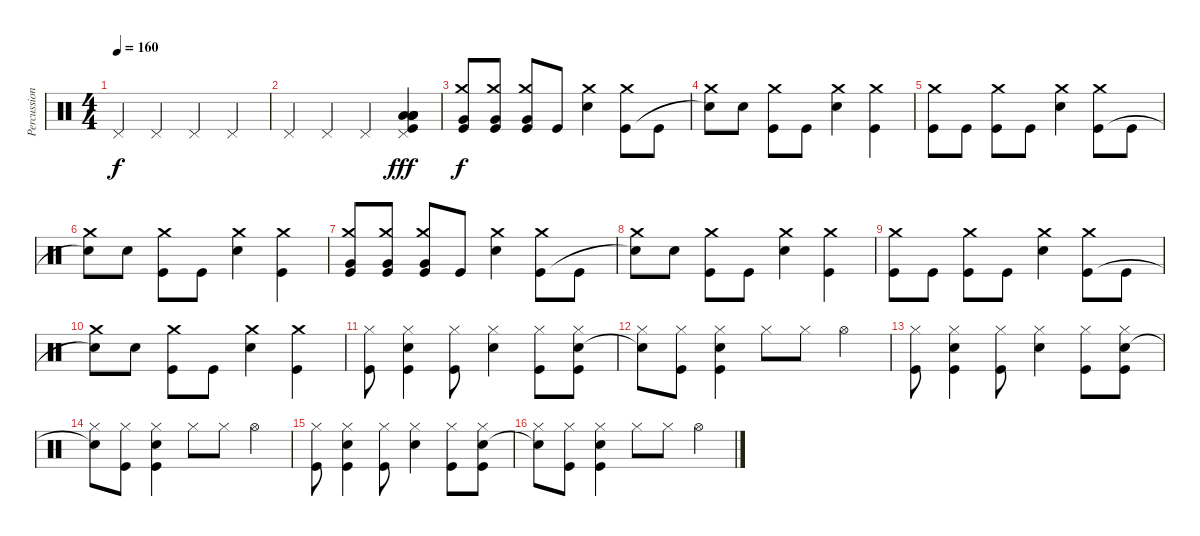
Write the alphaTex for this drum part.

\track ("Percussion" "Percussion") {instrument percussion}
\staff {score}
\articulation defaults
\ts (4 4)
\tempo 160
\clef neutral
\ks c "Pedal Hi-Hat (hit)".4{dy f} "Pedal Hi-Hat (hit)".4 "Pedal Hi-Hat (hit)".4 "Pedal Hi-Hat (hit)".4
|
"Pedal Hi-Hat (hit)".4 "Pedal Hi-Hat (hit)".4 "Pedal Hi-Hat (hit)".4 ("Pedal Hi-Hat (hit)" "Low Floor Tom (hit)" "Low Floor Tom (hit)" "Low Floor Tom (hit)" "Low Floor Tom (hit)" "Kick (hit)").4{dy fff} |
("Crash medium (hit)" "Very Low Tom (hit)" "Kick (hit)").8{dy f} ("Crash medium (hit)" "Very Low Tom (hit)" "Kick (hit)").8 ("Crash medium (hit)" "Very Low Tom (hit)" "Kick (hit)").8 "Kick (hit)".8 ("Crash medium (hit)" "Electric Snare (hit)").4 ("Crash medium (hit)" "Kick (hit)").8 "Kick (hit)".8 |
("Crash medium (hit)" "Snare (hit)"{t}).8 "Electric Snare (hit)".8 ("Crash medium (hit)" "Kick (hit)").8 "Kick (hit)".8 ("Crash medium (hit)" "Electric Snare (hit)").4 ("Crash medium (hit)" "Kick (hit)").4 |
("Crash medium (hit)" "Kick (hit)").8 "Kick (hit)".8 ("Crash medium (hit)" "Kick (hit)").8 "Kick (hit)".8 ("Crash medium (hit)" "Electric Snare (hit)").4 ("Crash medium (hit)" "Kick (hit)").8 "Kick (hit)".8 |
("Crash medium (hit)" "Snare (hit)"{t}).8 "Electric Snare (hit)".8 ("Crash medium (hit)" "Kick (hit)").8 "Kick (hit)".8 ("Crash medium (hit)" "Electric Snare (hit)").4 ("Crash medium (hit)" "Kick (hit)").4 |
("Crash medium (hit)" "Very Low Tom (hit)" "Kick (hit)").8 ("Crash medium (hit)" "Very Low Tom (hit)" "Kick (hit)").8 ("Crash medium (hit)" "Very Low Tom (hit)" "Kick (hit)").8 "Kick (hit)".8 ("Crash medium (hit)" "Electric Snare (hit)").4 ("Crash medium (hit)" "Kick (hit)").8 "Kick (hit)".8 |
("Crash medium (hit)" "Snare (hit)"{t}).8 "Electric Snare (hit)".8 ("Crash medium (hit)" "Kick (hit)").8 "Kick (hit)".8 ("Crash medium (hit)" "Electric Snare (hit)").4 ("Crash medium (hit)" "Kick (hit)").4 |
("Crash medium (hit)" "Kick (hit)").8 "Kick (hit)".8 ("Crash medium (hit)" "Kick (hit)").8 "Kick (hit)".8 ("Crash medium (hit)" "Electric Snare (hit)").4 ("Crash medium (hit)" "Kick (hit)").8 "Kick (hit)".8 |
("Crash medium (hit)" "Snare (hit)"{t}).8 "Electric Snare (hit)".8 ("Crash medium (hit)" "Kick (hit)").8 "Kick (hit)".8 ("Crash medium (hit)" "Electric Snare (hit)").4 ("Crash medium (hit)" "Kick (hit)").4 |
("Hi-Hat (closed)" "Kick (hit)").8 ("Hi-Hat (closed)" "Electric Snare (hit)" "Kick (hit)").4 ("Hi-Hat (closed)" "Kick (hit)").8 ("Hi-Hat (closed)" "Electric Snare (hit)").4 ("Hi-Hat (closed)" "Kick (hit)").8 ("Hi-Hat (closed)" "Electric Snare (hit)" "Kick (hit)").8 |
("Hi-Hat (closed)" "Snare (hit)"{t}).8 ("Hi-Hat (closed)" "Kick (hit)").8 ("Hi-Hat (closed)" "Electric Snare (hit)" "Kick (hit)").4 "Hi-Hat (closed)".8 "Hi-Hat (closed)".8 "Hi-Hat (open)".4 |
("Hi-Hat (closed)" "Kick (hit)").8 ("Hi-Hat (closed)" "Electric Snare (hit)" "Kick (hit)").4 ("Hi-Hat (closed)" "Kick (hit)").8 ("Hi-Hat (closed)" "Electric Snare (hit)").4 ("Hi-Hat (closed)" "Kick (hit)").8 ("Hi-Hat (closed)" "Electric Snare (hit)" "Kick (hit)").8 |
("Hi-Hat (closed)" "Snare (hit)"{t}).8 ("Hi-Hat (closed)" "Kick (hit)").8 ("Hi-Hat (closed)" "Electric Snare (hit)" "Kick (hit)").4 "Hi-Hat (closed)".8 "Hi-Hat (closed)".8 "Hi-Hat (open)".4 |
("Hi-Hat (closed)" "Kick (hit)").8 ("Hi-Hat (closed)" "Electric Snare (hit)" "Kick (hit)").4 ("Hi-Hat (closed)" "Kick (hit)").8 ("Hi-Hat (closed)" "Electric Snare (hit)").4 ("Hi-Hat (closed)" "Kick (hit)").8 ("Hi-Hat (closed)" "Electric Snare (hit)" "Kick (hit)").8 |
("Hi-Hat (closed)" "Snare (hit)"{t}).8 ("Hi-Hat (closed)" "Kick (hit)").8 ("Hi-Hat (closed)" "Electric Snare (hit)" "Kick (hit)").4 "Hi-Hat (closed)".8 "Hi-Hat (closed)".8 "Hi-Hat (open)".4
